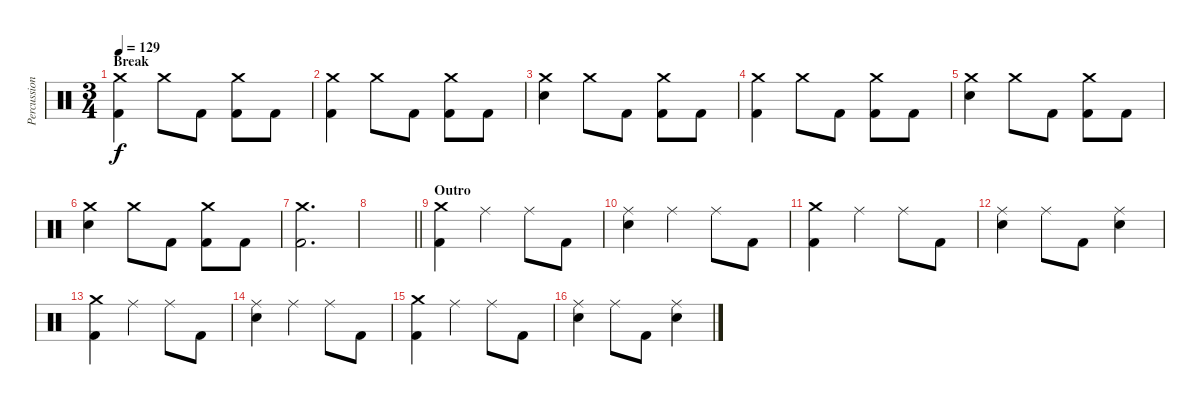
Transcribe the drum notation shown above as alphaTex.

\track ("Percussion" "Percussion") {instrument percussion}
\staff {score}
\articulation defaults
\ts (3 4)
\section ("" "Break")
\tempo 129
\clef neutral
\ks c
("Crash medium (hit)" "Kick (hit) 2").4{dy f} "Crash medium (hit)".8 "Kick (hit) 2".8 ("Crash medium (hit)" "Kick (hit) 2").8 "Kick (hit) 2".8 |
("Crash medium (hit)" "Kick (hit) 2").4 "Crash medium (hit)".8 "Kick (hit) 2".8 ("Crash medium (hit)" "Kick (hit) 2").8 "Kick (hit) 2".8 |
("Crash medium (hit)" "Electric Snare (hit)").4 "Crash medium (hit)".8 "Kick (hit) 2".8 ("Crash medium (hit)" "Kick (hit) 2").8 "Kick (hit) 2".8 |
("Crash medium (hit)" "Kick (hit) 2").4 "Crash medium (hit)".8 "Kick (hit) 2".8 ("Crash medium (hit)" "Kick (hit) 2").8 "Kick (hit) 2".8 |
("Crash medium (hit)" "Electric Snare (hit)").4 "Crash medium (hit)".8 "Kick (hit) 2".8 ("Crash medium (hit)" "Kick (hit) 2").8 "Kick (hit) 2".8 |
("Crash medium (hit)" "Electric Snare (hit)").4 "Crash medium (hit)".8 "Kick (hit) 2".8 ("Crash medium (hit)" "Kick (hit) 2").8 "Kick (hit) 2".8 |
("Crash medium (hit)" "Kick (hit) 2").2{d} |
\barLineRight lightlight
|
\section ("" "Outro")
("Crash medium (hit)" "Kick (hit) 2").4 "Ride (middle)".4 "Ride (middle)".8 "Kick (hit) 2".8 |
("Ride (middle)" "Electric Snare (hit)").4 "Ride (middle)".4 "Ride (middle)".8 "Kick (hit) 2".8 |
("Crash medium (hit)" "Kick (hit) 2").4 "Ride (middle)".4 "Ride (middle)".8 "Kick (hit) 2".8 |
("Ride (middle)" "Electric Snare (hit)").4 "Ride (middle)".8 "Kick (hit) 2".8 ("Ride (middle)" "Electric Snare (hit)").4 |
("Crash medium (hit)" "Kick (hit) 2").4 "Ride (middle)".4 "Ride (middle)".8 "Kick (hit) 2".8 |
("Ride (middle)" "Electric Snare (hit)").4 "Ride (middle)".4 "Ride (middle)".8 "Kick (hit) 2".8 |
("Crash medium (hit)" "Kick (hit) 2").4 "Ride (middle)".4 "Ride (middle)".8 "Kick (hit) 2".8 |
("Ride (middle)" "Electric Snare (hit)").4 "Ride (middle)".8 "Kick (hit) 2".8 ("Ride (middle)" "Electric Snare (hit)").4
